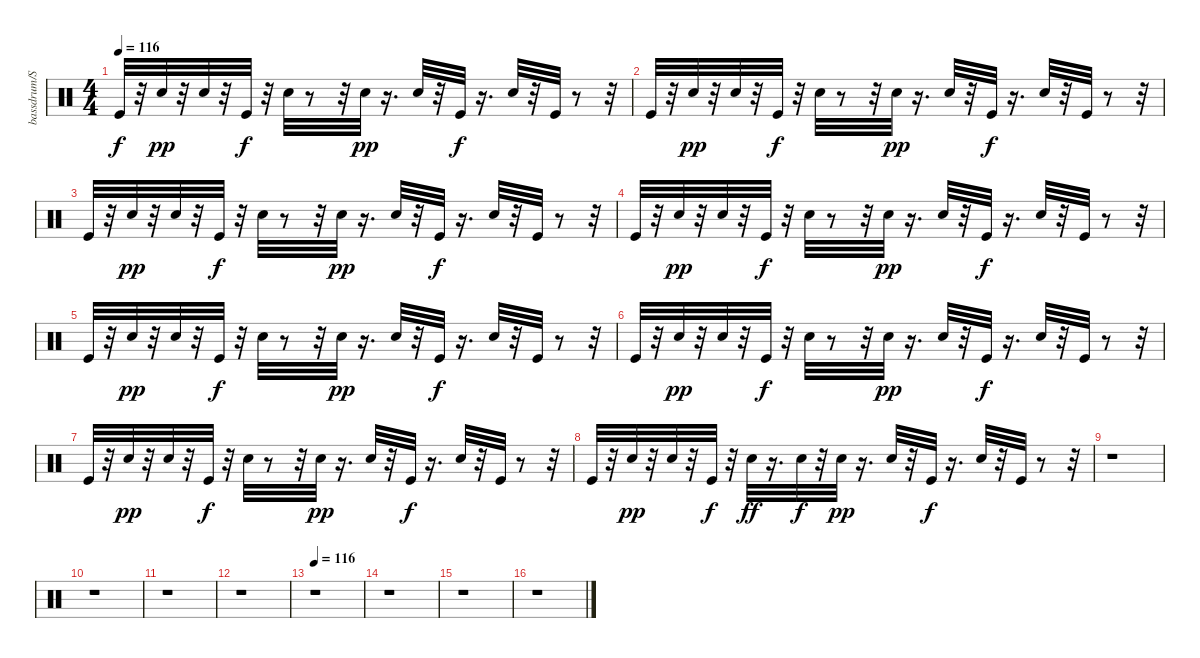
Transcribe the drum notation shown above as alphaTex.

\track ("bassdrum/SD" "bassdrum/S") {instrument percussion}
\staff {score}
\articulation defaults
\ts (4 4)
\tempo 116
\clef neutral
\ks c "Kick (hit)".32{dy f}
r.32 "Snare (hit) 2".32{dy pp} r.32 "Snare (hit) 2".32 r.32 "Kick (hit)".32{dy f} r.32 "Electric Snare (hit)".32 r.8 r.32 "Snare (hit) 2".32{dy pp} r.16{d} "Snare (hit) 2".32 r.32 "Kick (hit)".32{dy f} r.16{d} "Electric Snare (hit)".32 r.32 "Kick (hit)".32 r.8 r.32 |
"Kick (hit)".32 r.32 "Snare (hit) 2".32{dy pp} r.32 "Snare (hit) 2".32 r.32 "Kick (hit)".32{dy f} r.32 "Electric Snare (hit)".32 r.8 r.32 "Snare (hit) 2".32{dy pp} r.16{d} "Snare (hit) 2".32 r.32 "Kick (hit)".32{dy f} r.16{d} "Electric Snare (hit)".32 r.32 "Kick (hit)".32 r.8 r.32 |
"Kick (hit)".32 r.32 "Snare (hit) 2".32{dy pp} r.32 "Snare (hit) 2".32 r.32 "Kick (hit)".32{dy f} r.32 "Electric Snare (hit)".32 r.8 r.32 "Snare (hit) 2".32{dy pp} r.16{d} "Snare (hit) 2".32 r.32 "Kick (hit)".32{dy f} r.16{d} "Electric Snare (hit)".32 r.32 "Kick (hit)".32 r.8 r.32 |
"Kick (hit)".32 r.32 "Snare (hit) 2".32{dy pp} r.32 "Snare (hit) 2".32 r.32 "Kick (hit)".32{dy f} r.32 "Electric Snare (hit)".32 r.8 r.32 "Snare (hit) 2".32{dy pp} r.16{d} "Snare (hit) 2".32 r.32 "Kick (hit)".32{dy f} r.16{d} "Electric Snare (hit)".32 r.32 "Kick (hit)".32 r.8 r.32 |
"Kick (hit)".32 r.32 "Snare (hit) 2".32{dy pp} r.32 "Snare (hit) 2".32 r.32 "Kick (hit)".32{dy f} r.32 "Electric Snare (hit)".32 r.8 r.32 "Snare (hit) 2".32{dy pp} r.16{d} "Snare (hit) 2".32 r.32 "Kick (hit)".32{dy f} r.16{d} "Electric Snare (hit)".32 r.32 "Kick (hit)".32 r.8 r.32 |
"Kick (hit)".32 r.32 "Snare (hit) 2".32{dy pp} r.32 "Snare (hit) 2".32 r.32 "Kick (hit)".32{dy f} r.32 "Electric Snare (hit)".32 r.8 r.32 "Snare (hit) 2".32{dy pp} r.16{d} "Snare (hit) 2".32 r.32 "Kick (hit)".32{dy f} r.16{d} "Electric Snare (hit)".32 r.32 "Kick (hit)".32 r.8 r.32 |
"Kick (hit)".32 r.32 "Snare (hit) 2".32{dy pp} r.32 "Snare (hit) 2".32 r.32 "Kick (hit)".32{dy f} r.32 "Electric Snare (hit)".32 r.8 r.32 "Snare (hit) 2".32{dy pp} r.16{d} "Snare (hit) 2".32 r.32 "Kick (hit)".32{dy f} r.16{d} "Electric Snare (hit)".32 r.32 "Kick (hit)".32 r.8 r.32 |
"Kick (hit)".32 r.32 "Snare (hit) 2".32{dy pp} r.32 "Snare (hit) 2".32 r.32 "Kick (hit)".32{dy f} r.32 "Electric Snare (hit)".32{dy ff} r.16{d} "Electric Snare (hit)".32{dy f} r.32 "Snare (hit) 2".32{dy pp} r.16{d} "Snare (hit) 2".32 r.32 "Kick (hit)".32{dy f} r.16{d} "Electric Snare (hit)".32 r.32 "Kick (hit)".32 r.8 r.32 |
r.1 |
r.1 |
r.1 |
r.1 |
\tempo 116
r.1 |
r.1 |
r.1 |
r.1
